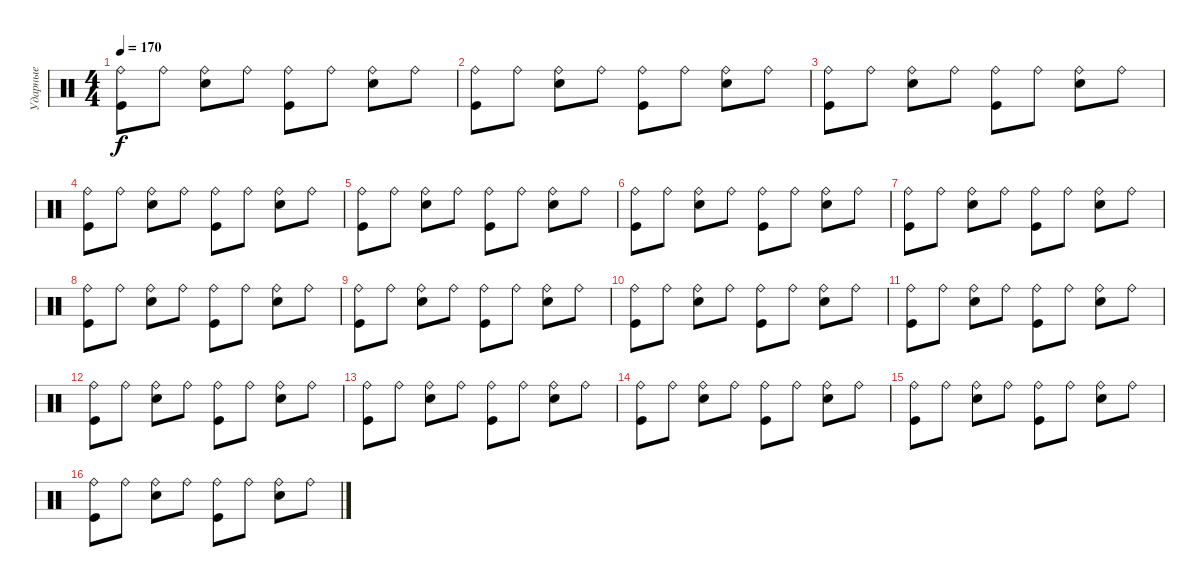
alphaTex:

\track ("Ударные" "Ударные") {instrument percussion}
\staff {score}
\articulation defaults
\ts (4 4)
\tempo 170
\clef neutral
\ks c
("Ride (bell)" "Kick (hit)").8{dy f} "Ride (bell)".8 ("Ride (bell)" "Snare (hit) 2").8 "Ride (bell)".8 ("Ride (bell)" "Kick (hit)").8 "Ride (bell)".8 ("Ride (bell)" "Snare (hit) 2").8 "Ride (bell)".8 |
("Ride (bell)" "Kick (hit)").8 "Ride (bell)".8 ("Ride (bell)" "Snare (hit) 2").8 "Ride (bell)".8 ("Ride (bell)" "Kick (hit)").8 "Ride (bell)".8 ("Ride (bell)" "Snare (hit) 2").8 "Ride (bell)".8 |
("Ride (bell)" "Kick (hit)").8 "Ride (bell)".8 ("Ride (bell)" "Snare (hit) 2").8 "Ride (bell)".8 ("Ride (bell)" "Kick (hit)").8 "Ride (bell)".8 ("Ride (bell)" "Snare (hit) 2").8 "Ride (bell)".8 |
("Ride (bell)" "Kick (hit)").8 "Ride (bell)".8 ("Ride (bell)" "Snare (hit) 2").8 "Ride (bell)".8 ("Ride (bell)" "Kick (hit)").8 "Ride (bell)".8 ("Ride (bell)" "Snare (hit) 2").8 "Ride (bell)".8 |
("Ride (bell)" "Kick (hit)").8 "Ride (bell)".8 ("Ride (bell)" "Snare (hit) 2").8 "Ride (bell)".8 ("Ride (bell)" "Kick (hit)").8 "Ride (bell)".8 ("Ride (bell)" "Snare (hit) 2").8 "Ride (bell)".8 |
("Ride (bell)" "Kick (hit)").8 "Ride (bell)".8 ("Ride (bell)" "Snare (hit) 2").8 "Ride (bell)".8 ("Ride (bell)" "Kick (hit)").8 "Ride (bell)".8 ("Ride (bell)" "Snare (hit) 2").8 "Ride (bell)".8 |
("Ride (bell)" "Kick (hit)").8 "Ride (bell)".8 ("Ride (bell)" "Snare (hit) 2").8 "Ride (bell)".8 ("Ride (bell)" "Kick (hit)").8 "Ride (bell)".8 ("Ride (bell)" "Snare (hit) 2").8 "Ride (bell)".8 |
("Ride (bell)" "Kick (hit)").8 "Ride (bell)".8 ("Ride (bell)" "Snare (hit) 2").8 "Ride (bell)".8 ("Ride (bell)" "Kick (hit)").8 "Ride (bell)".8 ("Ride (bell)" "Snare (hit) 2").8 "Ride (bell)".8 |
("Ride (bell)" "Kick (hit)").8 "Ride (bell)".8 ("Ride (bell)" "Snare (hit) 2").8 "Ride (bell)".8 ("Ride (bell)" "Kick (hit)").8 "Ride (bell)".8 ("Ride (bell)" "Snare (hit) 2").8 "Ride (bell)".8 |
("Ride (bell)" "Kick (hit)").8 "Ride (bell)".8 ("Ride (bell)" "Snare (hit) 2").8 "Ride (bell)".8 ("Ride (bell)" "Kick (hit)").8 "Ride (bell)".8 ("Ride (bell)" "Snare (hit) 2").8 "Ride (bell)".8 |
("Ride (bell)" "Kick (hit)").8 "Ride (bell)".8 ("Ride (bell)" "Snare (hit) 2").8 "Ride (bell)".8 ("Ride (bell)" "Kick (hit)").8 "Ride (bell)".8 ("Ride (bell)" "Snare (hit) 2").8 "Ride (bell)".8 |
("Ride (bell)" "Kick (hit)").8 "Ride (bell)".8 ("Ride (bell)" "Snare (hit) 2").8 "Ride (bell)".8 ("Ride (bell)" "Kick (hit)").8 "Ride (bell)".8 ("Ride (bell)" "Snare (hit) 2").8 "Ride (bell)".8 |
("Ride (bell)" "Kick (hit)").8 "Ride (bell)".8 ("Ride (bell)" "Snare (hit) 2").8 "Ride (bell)".8 ("Ride (bell)" "Kick (hit)").8 "Ride (bell)".8 ("Ride (bell)" "Snare (hit) 2").8 "Ride (bell)".8 |
("Ride (bell)" "Kick (hit)").8 "Ride (bell)".8 ("Ride (bell)" "Snare (hit) 2").8 "Ride (bell)".8 ("Ride (bell)" "Kick (hit)").8 "Ride (bell)".8 ("Ride (bell)" "Snare (hit) 2").8 "Ride (bell)".8 |
("Ride (bell)" "Kick (hit)").8 "Ride (bell)".8 ("Ride (bell)" "Snare (hit) 2").8 "Ride (bell)".8 ("Ride (bell)" "Kick (hit)").8 "Ride (bell)".8 ("Ride (bell)" "Snare (hit) 2").8 "Ride (bell)".8 |
("Ride (bell)" "Kick (hit)").8 "Ride (bell)".8 ("Ride (bell)" "Snare (hit) 2").8 "Ride (bell)".8 ("Ride (bell)" "Kick (hit)").8 "Ride (bell)".8 ("Ride (bell)" "Snare (hit) 2").8 "Ride (bell)".8
